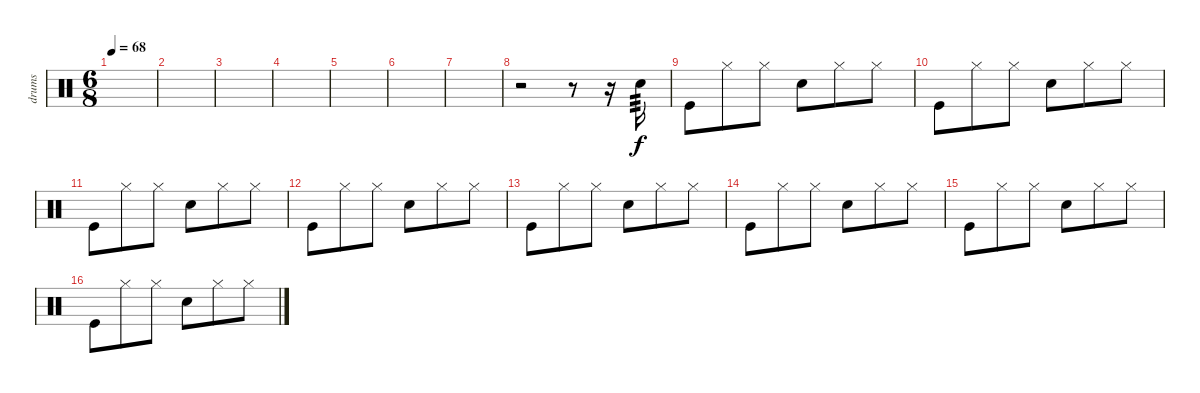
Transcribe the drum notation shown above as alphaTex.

\track ("drums" "drums") {instrument percussion}
\staff {score}
\articulation defaults
\ts (6 8)
\tempo 68
\clef neutral
\ks c
|
|
|
|
|
|
|
r.2 r.8 r.16 "Snare (hit) 2".16{tp 3} |
"Kick (hit)".8 "Hi-Hat (closed)".8 "Hi-Hat (closed)".8 "Snare (hit) 2".8 "Hi-Hat (closed)".8 "Hi-Hat (closed)".8 |
"Kick (hit)".8 "Hi-Hat (closed)".8 "Hi-Hat (closed)".8 "Snare (hit) 2".8 "Hi-Hat (closed)".8 "Hi-Hat (closed)".8 |
"Kick (hit)".8 "Hi-Hat (closed)".8 "Hi-Hat (closed)".8 "Snare (hit) 2".8 "Hi-Hat (closed)".8 "Hi-Hat (closed)".8 |
"Kick (hit)".8 "Hi-Hat (closed)".8 "Hi-Hat (closed)".8 "Snare (hit) 2".8 "Hi-Hat (closed)".8 "Hi-Hat (closed)".8 |
"Kick (hit)".8 "Hi-Hat (closed)".8 "Hi-Hat (closed)".8 "Snare (hit) 2".8 "Hi-Hat (closed)".8 "Hi-Hat (closed)".8 |
"Kick (hit)".8 "Hi-Hat (closed)".8 "Hi-Hat (closed)".8 "Snare (hit) 2".8 "Hi-Hat (closed)".8 "Hi-Hat (closed)".8 |
"Kick (hit)".8 "Hi-Hat (closed)".8 "Hi-Hat (closed)".8 "Snare (hit) 2".8 "Hi-Hat (closed)".8 "Hi-Hat (closed)".8 |
"Kick (hit)".8 "Hi-Hat (closed)".8 "Hi-Hat (closed)".8 "Snare (hit) 2".8 "Hi-Hat (closed)".8 "Hi-Hat (closed)".8
